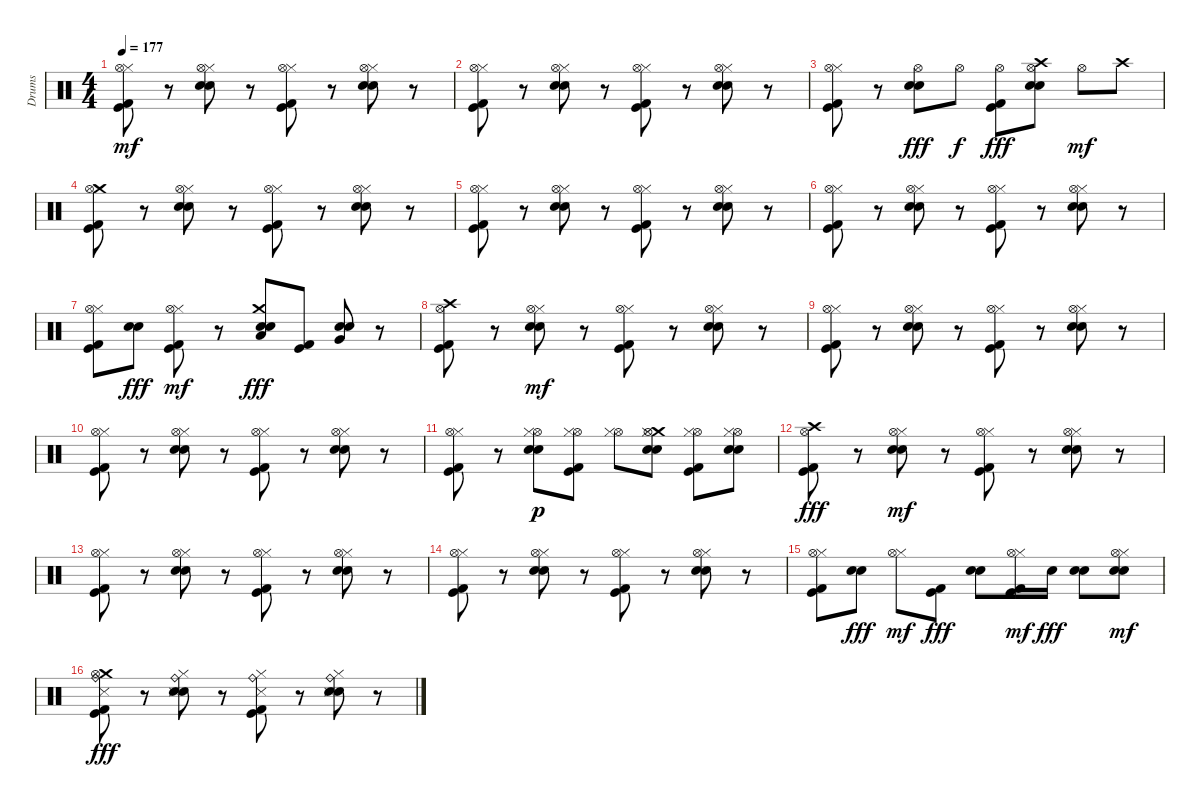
\track ("Drums" "Drums") {instrument percussion}
\staff {score}
\articulation defaults
\ts (4 4)
\tempo 177
\clef neutral
\ks c
("Hi-Hat (closed)" "Kick (hit) 2" "Kick (hit)" "Hi-Hat (open)").8{dy mf} r.8 ("Hi-Hat (closed)" "Electric Snare (hit)" "Snare (hit) 2" "Hi-Hat (open)").8 r.8 ("Hi-Hat (closed)" "Kick (hit) 2" "Kick (hit)" "Hi-Hat (open)").8 r.8 ("Hi-Hat (closed)" "Electric Snare (hit)" "Snare (hit) 2" "Hi-Hat (open)").8 r.8 |
("Hi-Hat (closed)" "Kick (hit) 2" "Kick (hit)" "Hi-Hat (open)").8 r.8 ("Hi-Hat (closed)" "Electric Snare (hit)" "Snare (hit) 2" "Hi-Hat (open)").8 r.8 ("Hi-Hat (closed)" "Kick (hit) 2" "Kick (hit)" "Hi-Hat (open)").8 r.8 ("Hi-Hat (closed)" "Electric Snare (hit)" "Snare (hit) 2" "Hi-Hat (open)").8 r.8 |
("Kick (hit) 2" "Kick (hit)" "Hi-Hat (closed)" "Hi-Hat (open)").8 r.8 ("Hi-Hat (open)" "Electric Snare (hit)" "Snare (hit) 2").8{dy fff} "Hi-Hat (open)".8{dy f} ("Hi-Hat (open)" "Kick (hit) 2" "Kick (hit)").8{dy fff} ("Hi-Hat (open)" "Electric Snare (hit)" "Snare (hit) 2" "Crash high (hit)").8 "Hi-Hat (open)".8{dy mf} "Crash high (hit)".8 |
("Kick (hit) 2" "Kick (hit)" "Crash medium (hit)" "Hi-Hat (open)").8 r.8 ("Hi-Hat (closed)" "Electric Snare (hit)" "Snare (hit) 2" "Hi-Hat (open)").8 r.8 ("Hi-Hat (closed)" "Kick (hit) 2" "Kick (hit)" "Hi-Hat (open)").8 r.8 ("Hi-Hat (closed)" "Electric Snare (hit)" "Snare (hit) 2" "Hi-Hat (open)").8 r.8 |
("Hi-Hat (closed)" "Kick (hit) 2" "Kick (hit)" "Hi-Hat (open)").8 r.8 ("Hi-Hat (closed)" "Electric Snare (hit)" "Snare (hit) 2" "Hi-Hat (open)").8 r.8 ("Hi-Hat (closed)" "Kick (hit) 2" "Kick (hit)" "Hi-Hat (open)").8 r.8 ("Hi-Hat (closed)" "Electric Snare (hit)" "Snare (hit) 2" "Hi-Hat (open)").8 r.8 |
("Hi-Hat (closed)" "Kick (hit) 2" "Kick (hit)" "Hi-Hat (open)").8 r.8 ("Hi-Hat (closed)" "Electric Snare (hit)" "Snare (hit) 2" "Hi-Hat (open)").8 r.8 ("Hi-Hat (closed)" "Kick (hit) 2" "Kick (hit)" "Hi-Hat (open)").8 r.8 ("Hi-Hat (closed)" "Electric Snare (hit)" "Snare (hit) 2" "Hi-Hat (open)").8 r.8 |
("Kick (hit) 2" "Kick (hit)" "Hi-Hat (closed)" "Hi-Hat (open)").8 ("Electric Snare (hit)" "Snare (hit) 2").8{dy fff} ("Kick (hit) 2" "Kick (hit)" "Hi-Hat (closed)" "Hi-Hat (open)").8{dy mf} r.8 ("Electric Snare (hit)" "Snare (hit) 2" "Crash medium (hit)" "Low Tom (hit)").8{dy fff} ("Kick (hit) 2" "Kick (hit)").8 ("Electric Snare (hit)" "Snare (hit) 2" "Very Low Tom (hit)").8 r.8 |
("Crash high (hit)" "Kick (hit) 2" "Kick (hit)" "Hi-Hat (open)").8 r.8 ("Hi-Hat (closed)" "Electric Snare (hit)" "Snare (hit) 2" "Hi-Hat (open)").8{dy mf} r.8 ("Hi-Hat (closed)" "Kick (hit) 2" "Kick (hit)" "Hi-Hat (open)").8 r.8 ("Hi-Hat (closed)" "Electric Snare (hit)" "Snare (hit) 2" "Hi-Hat (open)").8 r.8 |
("Hi-Hat (closed)" "Kick (hit) 2" "Kick (hit)" "Hi-Hat (open)").8 r.8 ("Hi-Hat (closed)" "Electric Snare (hit)" "Snare (hit) 2" "Hi-Hat (open)").8 r.8 ("Hi-Hat (closed)" "Kick (hit) 2" "Kick (hit)" "Hi-Hat (open)").8 r.8 ("Hi-Hat (closed)" "Electric Snare (hit)" "Snare (hit) 2" "Hi-Hat (open)").8 r.8 |
("Hi-Hat (closed)" "Kick (hit) 2" "Kick (hit)" "Hi-Hat (open)").8 r.8 ("Hi-Hat (closed)" "Electric Snare (hit)" "Snare (hit) 2" "Hi-Hat (open)").8 r.8 ("Hi-Hat (closed)" "Kick (hit) 2" "Kick (hit)" "Hi-Hat (open)").8 r.8 ("Hi-Hat (closed)" "Electric Snare (hit)" "Snare (hit) 2" "Hi-Hat (open)").8 r.8 |
("Kick (hit)" "Kick (hit) 2" "Hi-Hat (closed)" "Hi-Hat (open)").8 r.8 ("Electric Snare (hit)" "Snare (hit) 2" "Hi-Hat (open)" "Hi-Hat (closed)").8{dy p} ("Kick (hit) 2" "Kick (hit)" "Hi-Hat (open)" "Hi-Hat (closed)").8 ("Hi-Hat (open)" "Hi-Hat (closed)").8 ("Electric Snare (hit)" "Snare (hit) 2" "Crash medium (hit)" "Hi-Hat (open)" "Hi-Hat (closed)").8 ("Kick (hit) 2" "Kick (hit)" "Hi-Hat (open)" "Hi-Hat (closed)").8 ("Electric Snare (hit)" "Snare (hit) 2" "Hi-Hat (open)" "Hi-Hat (closed)").8 |
("Crash high (hit)" "Kick (hit) 2" "Kick (hit)" "Hi-Hat (open)").8{dy fff} r.8 ("Hi-Hat (closed)" "Electric Snare (hit)" "Snare (hit) 2" "Hi-Hat (open)").8{dy mf} r.8 ("Hi-Hat (closed)" "Kick (hit) 2" "Kick (hit)" "Hi-Hat (open)").8 r.8 ("Hi-Hat (closed)" "Electric Snare (hit)" "Snare (hit) 2" "Hi-Hat (open)").8 r.8 |
("Hi-Hat (closed)" "Kick (hit) 2" "Kick (hit)" "Hi-Hat (open)").8 r.8 ("Hi-Hat (closed)" "Electric Snare (hit)" "Snare (hit) 2" "Hi-Hat (open)").8 r.8 ("Hi-Hat (closed)" "Kick (hit) 2" "Kick (hit)" "Hi-Hat (open)").8 r.8 ("Hi-Hat (closed)" "Electric Snare (hit)" "Snare (hit) 2" "Hi-Hat (open)").8 r.8 |
("Hi-Hat (closed)" "Kick (hit) 2" "Kick (hit)" "Hi-Hat (open)").8 r.8 ("Hi-Hat (closed)" "Electric Snare (hit)" "Snare (hit) 2" "Hi-Hat (open)").8 r.8 ("Hi-Hat (closed)" "Kick (hit) 2" "Kick (hit)" "Hi-Hat (open)").8 r.8 ("Hi-Hat (closed)" "Electric Snare (hit)" "Snare (hit) 2" "Hi-Hat (open)").8 r.8 |
("Kick (hit)" "Kick (hit) 2" "Hi-Hat (closed)" "Hi-Hat (open)").8 ("Electric Snare (hit)" "Snare (hit) 2").8{dy fff} ("Hi-Hat (closed)" "Hi-Hat (open)").8{dy mf} ("Kick (hit) 2" "Kick (hit)").8{dy fff} ("Electric Snare (hit)" "Snare (hit) 2").8 ("Kick (hit) 2" "Kick (hit)" "Hi-Hat (closed)" "Hi-Hat (open)").16{dy mf} "Snare (hit) 2".16{dy fff} ("Electric Snare (hit)" "Snare (hit) 2").8 ("Electric Snare (hit)" "Snare (hit) 2" "Hi-Hat (closed)" "Hi-Hat (open)").8{dy mf} |
("Crash medium (hit)" "Kick (hit) 2" "Kick (hit)" "Hi-Hat (open)" "Snare (side stick) 3" "Ride (bell)").8{dy fff} r.8 ("Hi-Hat (closed)" "Electric Snare (hit)" "Snare (hit) 2" "Snare (side stick) 3" "Ride (bell)").8 r.8 ("Hi-Hat (closed)" "Kick (hit) 2" "Kick (hit)" "Snare (side stick) 3" "Ride (bell)").8 r.8 ("Hi-Hat (closed)" "Electric Snare (hit)" "Snare (hit) 2" "Snare (side stick) 3" "Ride (bell)").8 r.8
